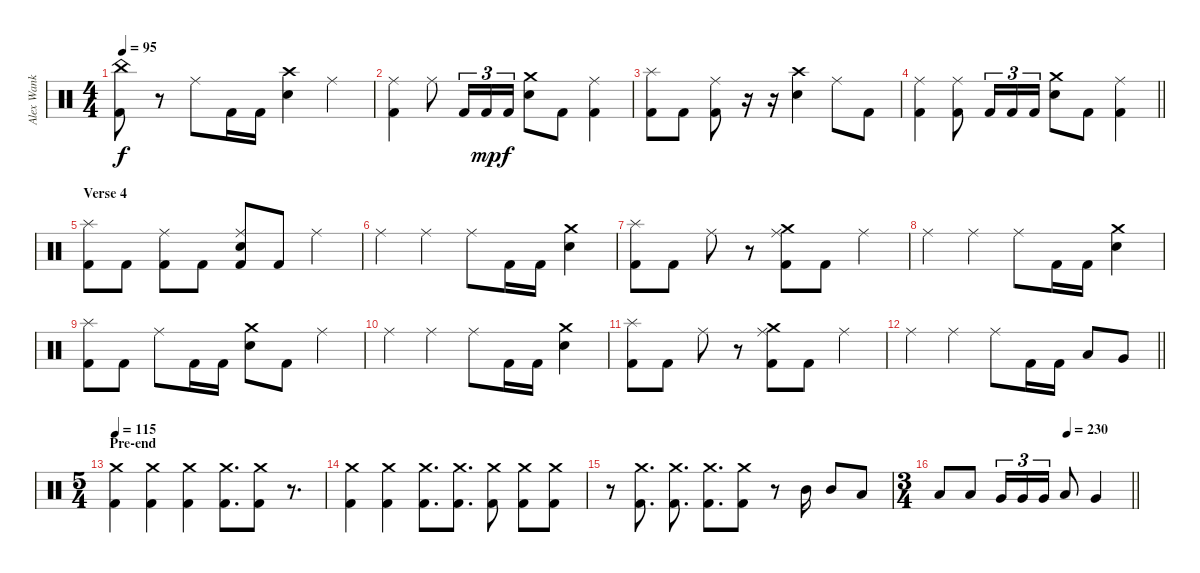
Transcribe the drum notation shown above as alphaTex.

\track ("Alex Wank" "Alex Wank") {instrument percussion}
\staff {score}
\articulation defaults
\ts (4 4)
\tempo 95
\clef neutral
\ks c
("Kick (hit) 2" "China (hit)").8{dy f} r.8 "Ride (middle)".8 "Kick (hit) 2".16 "Kick (hit) 2".16 ("Crash high (hit)" "Snare (hit) 2").4 "Ride (middle)".4 |
("Kick (hit) 2" "Ride (middle)").4 "Ride (middle)".8 "Kick (hit) 2".16{tu (3 2)} "Kick (hit) 2".16{tu (3 2) dy mp} "Kick (hit) 2".16{tu (3 2) dy f} ("Crash medium (hit)" "Snare (hit) 2").8 "Kick (hit) 2".8 ("Kick (hit) 2" "Ride (middle)").4 |
("Kick (hit) 2" "Splash (hit)").8 "Kick (hit) 2".8 ("Kick (hit) 2" "Ride (middle)").8 r.16 r.16 ("Crash high (hit)" "Snare (hit) 2").4 "Ride (middle)".8 "Kick (hit) 2".8 |
\barLineRight lightlight
("Kick (hit) 2" "Ride (middle)").4 ("Kick (hit) 2" "Ride (middle)").8 "Kick (hit) 2".16{tu (3 2)} "Kick (hit) 2".16{tu (3 2)} "Kick (hit) 2".16{tu (3 2)} ("Crash medium (hit)" "Snare (hit) 2").8 "Kick (hit) 2".8 ("Kick (hit) 2" "Ride (middle)").4 |
\section ("" "Verse 4")
("Kick (hit) 2" "Splash (hit)").8 "Kick (hit) 2".8 ("Kick (hit) 2" "Ride (middle)").8 "Kick (hit) 2".8 ("Kick (hit) 2" "Ride (middle)" "Snare (hit) 2").8 "Kick (hit) 2".8 "Ride (middle)".4 |
"Ride (middle)".4 "Ride (middle)".4 "Ride (middle)".8 "Kick (hit) 2".16 "Kick (hit) 2".16 ("Crash medium (hit)" "Snare (hit) 2").4 |
("Kick (hit) 2" "Splash (hit)").8 "Kick (hit) 2".8 "Ride (middle)".8 r.8 ("Kick (hit) 2" "Crash medium (hit)" "Ride (middle)").8 "Kick (hit) 2".8 "Ride (middle)".4 |
"Ride (middle)".4 "Ride (middle)".4 "Ride (middle)".8 "Kick (hit) 2".16 "Kick (hit) 2".16 ("Crash medium (hit)" "Snare (hit) 2").4 |
("Kick (hit) 2" "Splash (hit)").8 "Kick (hit) 2".8 "Ride (middle)".8 "Kick (hit) 2".16 "Kick (hit) 2".16 ("Crash medium (hit)" "Snare (hit) 2").8 "Kick (hit) 2".8 "Ride (middle)".4 |
"Ride (middle)".4 "Ride (middle)".4 "Ride (middle)".8 "Kick (hit) 2".16 "Kick (hit) 2".16 ("Crash medium (hit)" "Snare (hit) 2").4 |
("Kick (hit) 2" "Splash (hit)").8 "Kick (hit) 2".8 "Ride (middle)".8 r.8 ("Kick (hit) 2" "Crash medium (hit)" "Ride (middle)").8 "Kick (hit) 2".8 "Ride (middle)".4 |
\barLineRight lightlight "Ride (middle)".4 "Ride (middle)".4 "Ride (middle)".8 "Kick (hit) 2".16 "Kick (hit) 2".16 "Low Tom (hit)".8 "Very Low Tom (hit)".8
|
\ts (5 4)
\section ("" "Pre-end")
\tempo 115
("Kick (hit) 2" "Crash medium (hit)").4 ("Kick (hit) 2" "Crash medium (hit)").4 ("Kick (hit) 2" "Crash medium (hit)").4 ("Kick (hit) 2" "Crash medium (hit)").8{d} ("Kick (hit) 2" "Crash medium (hit)").8 r.8{d} |
("Kick (hit) 2" "Crash medium (hit)").4 ("Kick (hit) 2" "Crash medium (hit)").4 ("Kick (hit) 2" "Crash medium (hit)").8{d} ("Kick (hit) 2" "Crash medium (hit)").8{d} ("Kick (hit) 2" "Crash medium (hit)").8 ("Kick (hit) 2" "Crash medium (hit)").8 ("Kick (hit) 2" "Crash medium (hit)").8 |
r.8 ("Kick (hit) 2" "Crash medium (hit)").8{d} ("Kick (hit) 2" "Crash medium (hit)").8{d} ("Kick (hit) 2" "Crash medium (hit)").8{d} ("Kick (hit) 2" "Crash medium (hit)").8 r.8 "Mid Tom (hit)".16 "Mid Tom (hit)".8 "Low Tom (hit)".8 |
\ts (3 4)
\tempo (230 0.6666666666666666)
\barLineRight lightlight "Low Tom (hit)".8 "Low Tom (hit)".8 "Very Low Tom (hit)".16{tu (3 2)} "Very Low Tom (hit)".16{tu (3 2)} "Very Low Tom (hit)".16{tu (3 2)} "Low Floor Tom (hit)".8 "Very Low Tom (hit)".4
